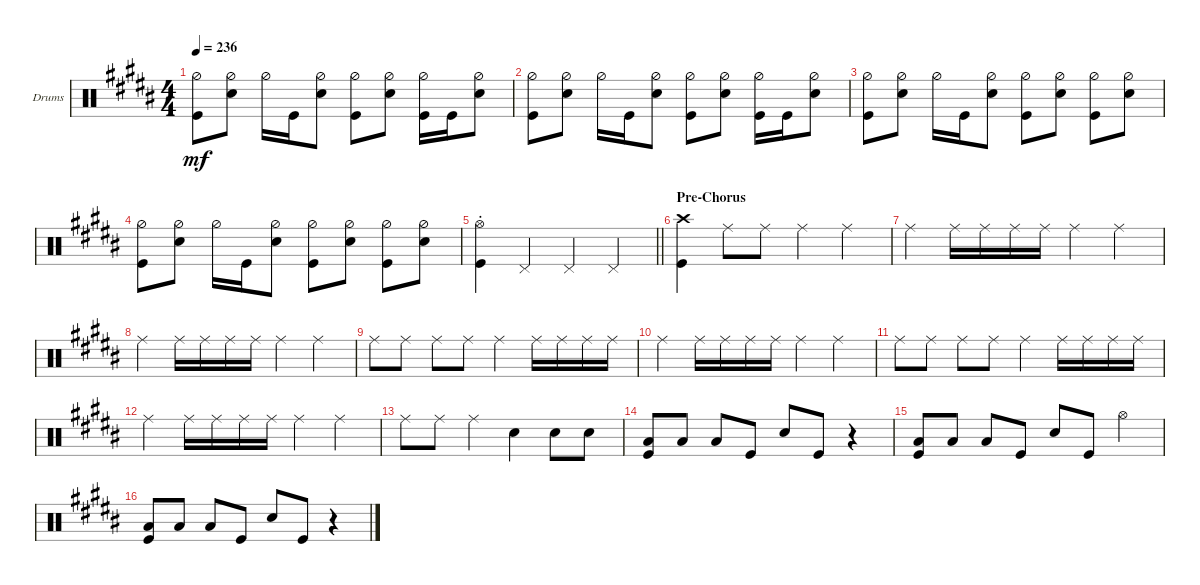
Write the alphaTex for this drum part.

\defaultSystemsLayout 4
\bracketExtendMode groupsimilarinstruments
\firstSystemTrackNameOrientation horizontal
\otherSystemsTrackNameOrientation horizontal
\track ("Drums" "Drums") {instrument percussion}
\staff {score}
\articulation defaults
\ts (4 4)
\tempo 236
\clef neutral
\ks b
("Hi-Hat (half)" "Kick (hit)").8{dy mf} ("Hi-Hat (half)" "Snare (hit) 2").8 "Hi-Hat (half)".16 "Kick (hit)".16 ("Hi-Hat (half)" "Snare (hit) 2").8 ("Hi-Hat (half)" "Kick (hit)").8 ("Hi-Hat (half)" "Snare (hit) 2").8 ("Hi-Hat (half)" "Kick (hit)").16 "Kick (hit)".16 ("Hi-Hat (half)" "Snare (hit) 2").8 |
("Hi-Hat (half)" "Kick (hit)").8 ("Hi-Hat (half)" "Snare (hit) 2").8 "Hi-Hat (half)".16 "Kick (hit)".16 ("Hi-Hat (half)" "Snare (hit) 2").8 ("Hi-Hat (half)" "Kick (hit)").8 ("Hi-Hat (half)" "Snare (hit) 2").8 ("Hi-Hat (half)" "Kick (hit)").16 "Kick (hit)".16 ("Hi-Hat (half)" "Snare (hit) 2").8 |
("Hi-Hat (half)" "Kick (hit)").8 ("Hi-Hat (half)" "Snare (hit) 2").8 "Hi-Hat (half)".16 "Kick (hit)".16 ("Hi-Hat (half)" "Snare (hit) 2").8 ("Hi-Hat (half)" "Kick (hit)").8 ("Hi-Hat (half)" "Snare (hit) 2").8 ("Hi-Hat (half)" "Kick (hit)").8 ("Hi-Hat (half)" "Snare (hit) 2").8 |
("Kick (hit)" "Hi-Hat (half)").8 ("Hi-Hat (half)" "Snare (hit) 2").8 "Hi-Hat (half)".16 "Kick (hit)".16 ("Hi-Hat (half)" "Snare (hit) 2").8 ("Hi-Hat (half)" "Kick (hit)").8 ("Hi-Hat (half)" "Snare (hit) 2").8 ("Hi-Hat (half)" "Kick (hit)").8 ("Hi-Hat (half)" "Snare (hit) 2").8 |
\barLineRight lightlight
("Kick (hit)"{st} "Hi-Hat (open)"{st}).4 "Pedal Hi-Hat (hit)".4 "Pedal Hi-Hat (hit)".4 "Pedal Hi-Hat (hit)".4 |
\section ("" "Pre-Chorus")
("Kick (hit)" "Crash high (hit)").4 "Ride (middle)".8 "Ride (middle)".8 "Ride (middle)".4 "Ride (middle)".4 |
"Ride (middle)".4 "Ride (middle)".16 "Ride (middle)".16 "Ride (middle)".16 "Ride (middle)".16 "Ride (middle)".4 "Ride (middle)".4 |
"Ride (middle)".4 "Ride (middle)".16 "Ride (middle)".16 "Ride (middle)".16 "Ride (middle)".16 "Ride (middle)".4 "Ride (middle)".4 |
"Ride (middle)".8 "Ride (middle)".8 "Ride (middle)".8 "Ride (middle)".8 "Ride (middle)".4 "Ride (middle)".16 "Ride (middle)".16 "Ride (middle)".16 "Ride (middle)".16 |
"Ride (middle)".4 "Ride (middle)".16 "Ride (middle)".16 "Ride (middle)".16 "Ride (middle)".16 "Ride (middle)".4 "Ride (middle)".4 |
"Ride (middle)".8 "Ride (middle)".8 "Ride (middle)".8 "Ride (middle)".8 "Ride (middle)".4 "Ride (middle)".16 "Ride (middle)".16 "Ride (middle)".16 "Ride (middle)".16 |
"Ride (middle)".4 "Ride (middle)".16 "Ride (middle)".16 "Ride (middle)".16 "Ride (middle)".16 "Ride (middle)".4 "Ride (middle)".4 |
"Ride (middle)".8 "Ride (middle)".8 "Ride (middle)".4 "Snare (hit) 2".4 "Snare (hit) 2".8 "Snare (hit) 2".8 |
("Kick (hit)" "Low Tom (hit)").8 "Low Tom (hit)".8 "Low Tom (hit)".8 "Kick (hit)".8 "Snare (hit) 2".8 "Kick (hit)".8 r.4 |
("Kick (hit)" "Low Tom (hit)").8 "Low Tom (hit)".8 "Low Tom (hit)".8 "Kick (hit)".8 "Snare (hit) 2".8 "Kick (hit)".8 "Hi-Hat (open)".4 |
("Kick (hit)" "Low Tom (hit)").8 "Low Tom (hit)".8 "Low Tom (hit)".8 "Kick (hit)".8 "Snare (hit) 2".8 "Kick (hit)".8 r.4
